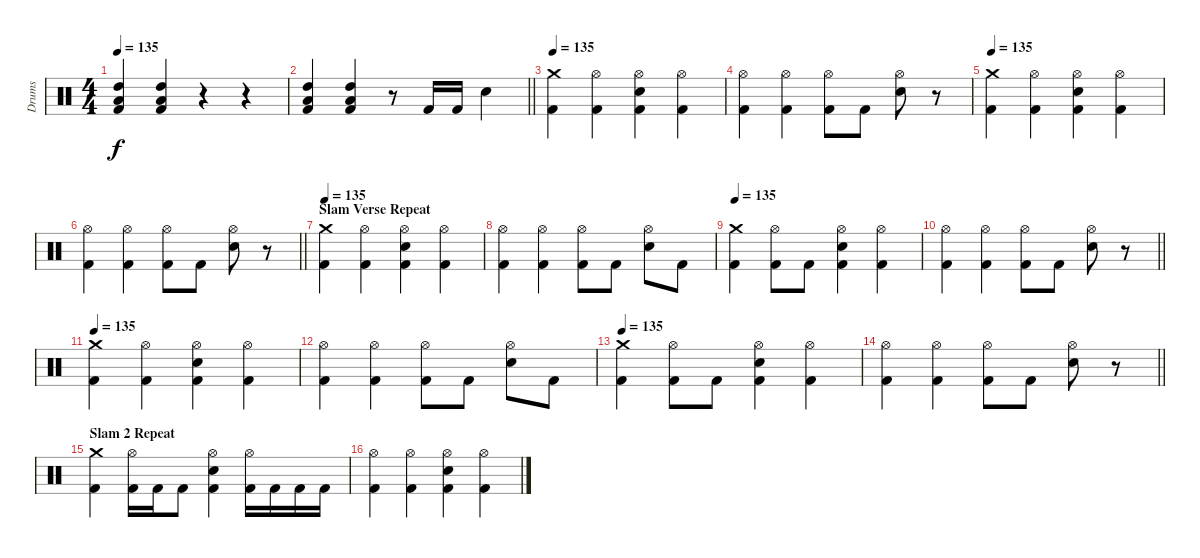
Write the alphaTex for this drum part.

\track ("Drums" "Drums") {instrument percussion}
\staff {score}
\articulation defaults
\ts (4 4)
\tempo 135
\clef neutral
\ks c
("Kick (hit) 2" "High Tom (hit)" "Low Tom (hit)").4{dy f} ("Kick (hit) 2" "High Tom (hit)" "Low Tom (hit)").4 r.4 r.4 |
\barLineRight lightlight
("High Tom (hit)" "Low Tom (hit)" "Kick (hit) 2").4 ("High Tom (hit)" "Low Tom (hit)" "Kick (hit) 2").4 r.8 "Kick (hit) 2".16 "Kick (hit) 2".16 "Electric Snare (hit)".4 |
\tempo 135
("Crash medium (hit)" "Kick (hit) 2").4 ("Hi-Hat (open)" "Kick (hit) 2").4 ("Hi-Hat (open)" "Electric Snare (hit)" "Kick (hit) 2").4 ("Hi-Hat (open)" "Kick (hit) 2").4 |
("Hi-Hat (open)" "Kick (hit) 2").4 ("Hi-Hat (open)" "Kick (hit) 2").4 ("Hi-Hat (open)" "Kick (hit) 2").8 "Kick (hit) 2".8 ("Hi-Hat (open)" "Electric Snare (hit)").8 r.8 |
\tempo 135
("Crash medium (hit)" "Kick (hit) 2").4 ("Hi-Hat (open)" "Kick (hit) 2").4 ("Hi-Hat (open)" "Electric Snare (hit)" "Kick (hit) 2").4 ("Hi-Hat (open)" "Kick (hit) 2").4 |
\barLineRight lightlight
("Hi-Hat (open)" "Kick (hit) 2").4 ("Hi-Hat (open)" "Kick (hit) 2").4 ("Hi-Hat (open)" "Kick (hit) 2").8 "Kick (hit) 2".8 ("Hi-Hat (open)" "Electric Snare (hit)").8 r.8 |
\section ("" "Slam Verse Repeat")
\tempo 135
("Crash medium (hit)" "Kick (hit) 2").4 ("Hi-Hat (open)" "Kick (hit) 2").4 ("Hi-Hat (open)" "Electric Snare (hit)" "Kick (hit) 2").4 ("Hi-Hat (open)" "Kick (hit) 2").4 |
("Hi-Hat (open)" "Kick (hit) 2").4 ("Hi-Hat (open)" "Kick (hit) 2").4 ("Hi-Hat (open)" "Kick (hit) 2").8 "Kick (hit) 2".8 ("Hi-Hat (open)" "Electric Snare (hit)").8 "Kick (hit) 2".8 |
\tempo 135
("Crash medium (hit)" "Kick (hit) 2").4 ("Hi-Hat (open)" "Kick (hit) 2").8 "Kick (hit) 2".8 ("Hi-Hat (open)" "Electric Snare (hit)" "Kick (hit) 2").4 ("Hi-Hat (open)" "Kick (hit) 2").4 |
\barLineRight lightlight
("Hi-Hat (open)" "Kick (hit) 2").4 ("Hi-Hat (open)" "Kick (hit) 2").4 ("Hi-Hat (open)" "Kick (hit) 2").8 "Kick (hit) 2".8 ("Hi-Hat (open)" "Electric Snare (hit)").8 r.8 |
\tempo 135
("Crash medium (hit)" "Kick (hit) 2").4 ("Hi-Hat (open)" "Kick (hit) 2").4 ("Hi-Hat (open)" "Electric Snare (hit)" "Kick (hit) 2").4 ("Hi-Hat (open)" "Kick (hit) 2").4 |
("Hi-Hat (open)" "Kick (hit) 2").4 ("Hi-Hat (open)" "Kick (hit) 2").4 ("Hi-Hat (open)" "Kick (hit) 2").8 "Kick (hit) 2".8 ("Hi-Hat (open)" "Electric Snare (hit)").8 "Kick (hit) 2".8 |
\tempo 135
("Crash medium (hit)" "Kick (hit) 2").4 ("Hi-Hat (open)" "Kick (hit) 2").8 "Kick (hit) 2".8 ("Hi-Hat (open)" "Electric Snare (hit)" "Kick (hit) 2").4 ("Hi-Hat (open)" "Kick (hit) 2").4 |
\barLineRight lightlight
("Hi-Hat (open)" "Kick (hit) 2").4 ("Hi-Hat (open)" "Kick (hit) 2").4 ("Hi-Hat (open)" "Kick (hit) 2").8 "Kick (hit) 2".8 ("Hi-Hat (open)" "Electric Snare (hit)").8 r.8 |
\section ("" "Slam 2 Repeat")
("Crash medium (hit)" "Kick (hit) 2").4 ("Hi-Hat (open)" "Kick (hit) 2").16 "Kick (hit) 2".16 "Kick (hit) 2".8 ("Hi-Hat (open)" "Electric Snare (hit)" "Kick (hit) 2").4 ("Hi-Hat (open)" "Kick (hit) 2").16 "Kick (hit) 2".16 "Kick (hit) 2".16 "Kick (hit) 2".16 |
("Hi-Hat (open)" "Kick (hit) 2").4 ("Hi-Hat (open)" "Kick (hit) 2").4 ("Hi-Hat (open)" "Electric Snare (hit)" "Kick (hit) 2").4 ("Hi-Hat (open)" "Kick (hit) 2").4
